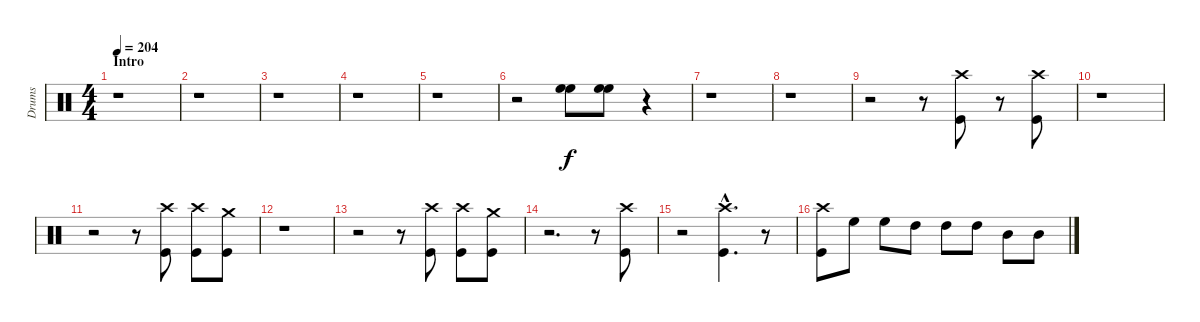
\track ("Drums" "Drums") {instrument percussion}
\staff {score}
\articulation defaults
\ts (4 4)
\section ("" "Intro")
\tempo 204
\clef neutral
\ks c
r.1{dy f} |
r.1 |
r.1 |
r.1 |
r.1 |
r.2 ("High Floor Tom (hit)" "High Floor Tom (hit)").8{balance 16} ("High Floor Tom (hit)" "High Floor Tom (hit)").8{balance 0} r.4{balance 8} |
r.1 |
r.1 |
r.2 r.8 ("Crash high (hit)" "Kick (hit)").8 r.8 ("Crash high (hit)" "Kick (hit)").8 |
r.1 |
r.2 r.8 ("Crash high (hit)" "Kick (hit)").8 ("Crash high (hit)" "Kick (hit)").8 ("Crash medium (hit)" "Kick (hit)").8 |
r.1 |
r.2 r.8 ("Crash high (hit)" "Kick (hit)").8 ("Crash high (hit)" "Kick (hit)").8 ("Crash medium (hit)" "Kick (hit)").8 |
r.2{d} r.8 ("Crash high (hit)" "Kick (hit)").8 |
r.2 ("Crash high (hit)"{hac} "Kick (hit)"{hac}).4{d} r.8 |
("Crash high (hit)" "Kick (hit)").8 "High Floor Tom (hit)".8 "High Floor Tom (hit)".8 "High Tom (hit)".8 "High Tom (hit)".8 "High Tom (hit)".8 "Mid Tom (hit)".8 "Mid Tom (hit)".8
